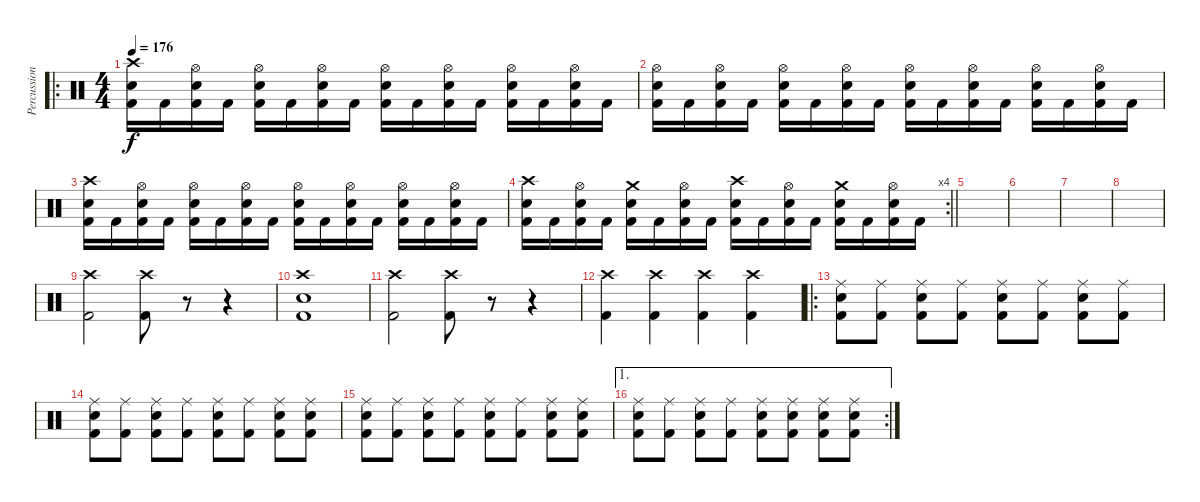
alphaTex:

\track ("Percussion" "Percussion") {instrument percussion}
\staff {score}
\articulation defaults
\ro
\ts (4 4)
\tempo 176
\clef neutral
\ks c
("Crash high (hit)" "Electric Snare (hit)" "Kick (hit) 2").16{dy f} "Kick (hit) 2".16 ("Hi-Hat (open)" "Electric Snare (hit)" "Kick (hit) 2").16 "Kick (hit) 2".16 ("Hi-Hat (open)" "Electric Snare (hit)" "Kick (hit) 2").16 "Kick (hit) 2".16 ("Hi-Hat (open)" "Electric Snare (hit)" "Kick (hit) 2").16 "Kick (hit) 2".16 ("Hi-Hat (open)" "Electric Snare (hit)" "Kick (hit) 2").16 "Kick (hit) 2".16 ("Hi-Hat (open)" "Electric Snare (hit)" "Kick (hit) 2").16 "Kick (hit) 2".16 ("Hi-Hat (open)" "Electric Snare (hit)" "Kick (hit) 2").16 "Kick (hit) 2".16 ("Hi-Hat (open)" "Electric Snare (hit)" "Kick (hit) 2").16 "Kick (hit) 2".16 |
("Hi-Hat (open)" "Electric Snare (hit)" "Kick (hit) 2").16 "Kick (hit) 2".16 ("Hi-Hat (open)" "Electric Snare (hit)" "Kick (hit) 2").16 "Kick (hit) 2".16 ("Hi-Hat (open)" "Electric Snare (hit)" "Kick (hit) 2").16 "Kick (hit) 2".16 ("Hi-Hat (open)" "Electric Snare (hit)" "Kick (hit) 2").16 "Kick (hit) 2".16 ("Hi-Hat (open)" "Electric Snare (hit)" "Kick (hit) 2").16 "Kick (hit) 2".16 ("Hi-Hat (open)" "Electric Snare (hit)" "Kick (hit) 2").16 "Kick (hit) 2".16 ("Hi-Hat (open)" "Electric Snare (hit)" "Kick (hit) 2").16 "Kick (hit) 2".16 ("Hi-Hat (open)" "Electric Snare (hit)" "Kick (hit) 2").16 "Kick (hit) 2".16 |
("Crash high (hit)" "Electric Snare (hit)" "Kick (hit) 2").16 "Kick (hit) 2".16 ("Hi-Hat (open)" "Electric Snare (hit)" "Kick (hit) 2").16 "Kick (hit) 2".16 ("Hi-Hat (open)" "Electric Snare (hit)" "Kick (hit) 2").16 "Kick (hit) 2".16 ("Hi-Hat (open)" "Electric Snare (hit)" "Kick (hit) 2").16 "Kick (hit) 2".16 ("Hi-Hat (open)" "Electric Snare (hit)" "Kick (hit) 2").16 "Kick (hit) 2".16 ("Hi-Hat (open)" "Electric Snare (hit)" "Kick (hit) 2").16 "Kick (hit) 2".16 ("Hi-Hat (open)" "Electric Snare (hit)" "Kick (hit) 2").16 "Kick (hit) 2".16 ("Hi-Hat (open)" "Electric Snare (hit)" "Kick (hit) 2").16 "Kick (hit) 2".16 |
\rc 4
\barLineRight lightlight
("Crash high (hit)" "Electric Snare (hit)" "Kick (hit) 2").16 "Kick (hit) 2".16 ("Hi-Hat (open)" "Electric Snare (hit)" "Kick (hit) 2").16 "Kick (hit) 2".16 ("Crash medium (hit)" "Electric Snare (hit)" "Kick (hit) 2").16 "Kick (hit) 2".16 ("Hi-Hat (open)" "Electric Snare (hit)" "Kick (hit) 2").16 "Kick (hit) 2".16 ("Crash high (hit)" "Electric Snare (hit)" "Kick (hit) 2").16 "Kick (hit) 2".16 ("Hi-Hat (open)" "Electric Snare (hit)" "Kick (hit) 2").16 "Kick (hit) 2".16 ("Crash medium (hit)" "Electric Snare (hit)" "Kick (hit) 2").16 "Kick (hit) 2".16 ("Hi-Hat (open)" "Electric Snare (hit)" "Kick (hit) 2").16 "Kick (hit) 2".16 |
|
|
|
|
("Crash high (hit)" "Kick (hit) 2").2 ("Crash high (hit)" "Kick (hit) 2").8 r.8{volume 0} r.4 |
("Crash high (hit)" "Electric Snare (hit)" "Kick (hit) 2").1{volume 13} |
("Crash high (hit)" "Kick (hit) 2").2 ("Crash high (hit)" "Kick (hit) 2").8 r.8{volume 0} r.4 |
("Crash high (hit)" "Kick (hit) 2").4{volume 13} ("Crash high (hit)" "Kick (hit) 2").4 ("Crash high (hit)" "Kick (hit) 2").4 ("Crash high (hit)" "Kick (hit) 2").4 |
\ro
("Ride (middle)" "Electric Snare (hit)" "Kick (hit) 2").8 ("Ride (middle)" "Kick (hit) 2").8 ("Ride (middle)" "Electric Snare (hit)" "Kick (hit) 2").8 ("Ride (middle)" "Kick (hit) 2").8 ("Ride (middle)" "Electric Snare (hit)" "Kick (hit) 2").8 ("Ride (middle)" "Kick (hit) 2").8 ("Ride (middle)" "Electric Snare (hit)" "Kick (hit) 2").8 ("Ride (middle)" "Kick (hit) 2").8 |
("Ride (middle)" "Electric Snare (hit)" "Kick (hit) 2").8 ("Ride (middle)" "Kick (hit) 2").8 ("Ride (middle)" "Electric Snare (hit)" "Kick (hit) 2").8 ("Ride (middle)" "Kick (hit) 2").8 ("Ride (middle)" "Electric Snare (hit)" "Kick (hit) 2").8 ("Ride (middle)" "Kick (hit) 2").8 ("Ride (middle)" "Electric Snare (hit)" "Kick (hit) 2").8 ("Ride (middle)" "Electric Snare (hit)" "Kick (hit) 2").8 |
("Ride (middle)" "Electric Snare (hit)" "Kick (hit) 2").8 ("Ride (middle)" "Kick (hit) 2").8 ("Ride (middle)" "Electric Snare (hit)" "Kick (hit) 2").8 ("Ride (middle)" "Kick (hit) 2").8 ("Ride (middle)" "Electric Snare (hit)" "Kick (hit) 2").8 ("Ride (middle)" "Kick (hit) 2").8 ("Ride (middle)" "Electric Snare (hit)" "Kick (hit) 2").8 ("Ride (middle)" "Electric Snare (hit)" "Kick (hit) 2").8 |
\ae 1
\rc 2
("Ride (middle)" "Electric Snare (hit)" "Kick (hit) 2").8 ("Ride (middle)" "Kick (hit) 2").8 ("Ride (middle)" "Electric Snare (hit)" "Kick (hit) 2").8 ("Ride (middle)" "Kick (hit) 2").8 ("Ride (middle)" "Electric Snare (hit)" "Kick (hit) 2").8 ("Ride (middle)" "Electric Snare (hit)" "Kick (hit) 2").8 ("Ride (middle)" "Electric Snare (hit)" "Kick (hit) 2").8 ("Ride (middle)" "Electric Snare (hit)" "Kick (hit) 2").8
